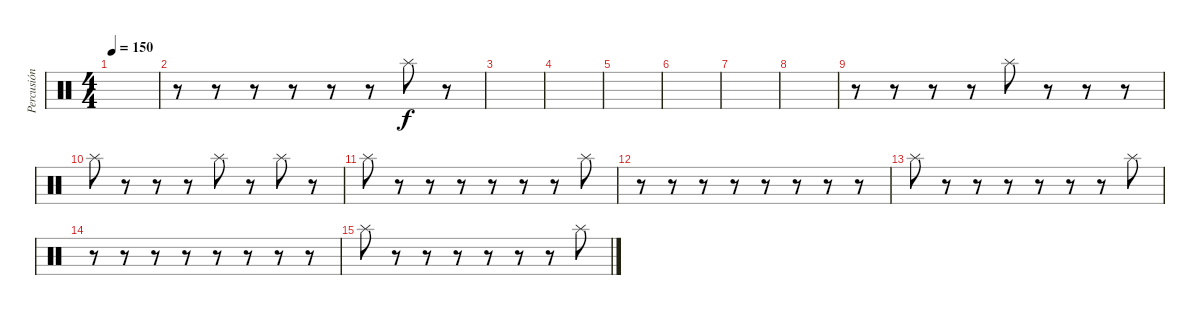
\track ("Percusión" "Percusión") {instrument percussion}
\staff {score}
\articulation defaults
\ts (4 4)
\tempo 150
\clef neutral
\ks c
|
r.8 r.8 r.8 r.8 r.8 r.8 "Splash (hit)".8 r.8 |
|
|
|
|
|
|
r.8 r.8 r.8 r.8 "Splash (hit)".8 r.8 r.8 r.8 |
"Splash (hit)".8 r.8 r.8 r.8 "Splash (hit)".8 r.8 "Splash (hit)".8 r.8 |
"Splash (hit)".8 r.8 r.8 r.8 r.8 r.8 r.8 "Splash (hit)".8 |
r.8 r.8 r.8 r.8 r.8 r.8 r.8 r.8 |
"Splash (hit)".8 r.8 r.8 r.8 r.8 r.8 r.8 "Splash (hit)".8 |
r.8 r.8 r.8 r.8 r.8 r.8 r.8 r.8 |
"Splash (hit)".8 r.8 r.8 r.8 r.8 r.8 r.8 "Splash (hit)".8
